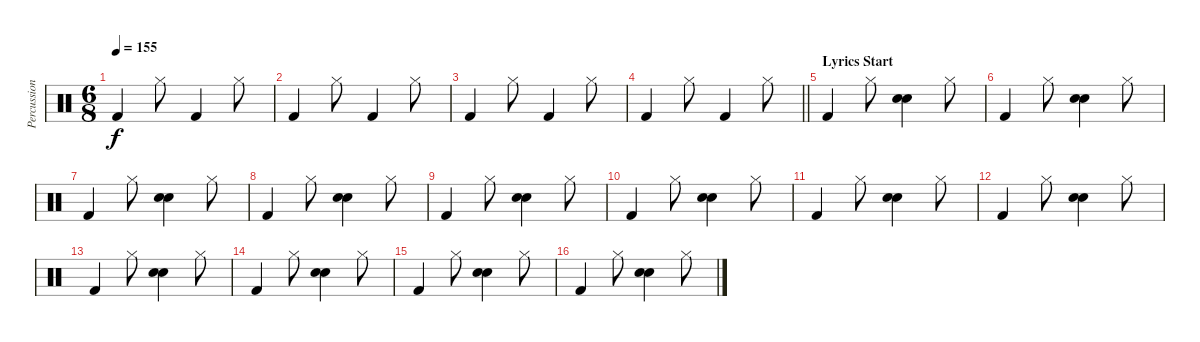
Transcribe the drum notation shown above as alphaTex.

\track ("Percussion" "Percussion") {instrument percussion}
\staff {score}
\articulation defaults
\ts (6 8)
\tempo 155
\clef neutral
\ks c "Kick (hit) 2".4{dy f} "Hi-Hat (closed)".8 "Kick (hit) 2".4 "Hi-Hat (closed)".8
|
"Kick (hit) 2".4 "Hi-Hat (closed)".8 "Kick (hit) 2".4 "Hi-Hat (closed)".8 |
"Kick (hit) 2".4 "Hi-Hat (closed)".8 "Kick (hit) 2".4 "Hi-Hat (closed)".8 |
\barLineRight lightlight "Kick (hit) 2".4 "Hi-Hat (closed)".8 "Kick (hit) 2".4 "Hi-Hat (closed)".8
|
\section ("" "Lyrics Start")
"Kick (hit) 2".4 "Hi-Hat (closed)".8 ("Hand Clap (hit)" "Electric Snare (hit)").4 "Hi-Hat (closed)".8 |
"Kick (hit) 2".4 "Hi-Hat (closed)".8 ("Hand Clap (hit)" "Electric Snare (hit)").4 "Hi-Hat (closed)".8 |
"Kick (hit) 2".4 "Hi-Hat (closed)".8 ("Hand Clap (hit)" "Electric Snare (hit)").4 "Hi-Hat (closed)".8 |
"Kick (hit) 2".4 "Hi-Hat (closed)".8 ("Hand Clap (hit)" "Electric Snare (hit)").4 "Hi-Hat (closed)".8 |
"Kick (hit) 2".4 "Hi-Hat (closed)".8 ("Hand Clap (hit)" "Electric Snare (hit)").4 "Hi-Hat (closed)".8 |
"Kick (hit) 2".4 "Hi-Hat (closed)".8 ("Hand Clap (hit)" "Electric Snare (hit)").4 "Hi-Hat (closed)".8 |
"Kick (hit) 2".4 "Hi-Hat (closed)".8 ("Hand Clap (hit)" "Electric Snare (hit)").4 "Hi-Hat (closed)".8 |
"Kick (hit) 2".4 "Hi-Hat (closed)".8 ("Hand Clap (hit)" "Electric Snare (hit)").4 "Hi-Hat (closed)".8 |
"Kick (hit) 2".4 "Hi-Hat (closed)".8 ("Hand Clap (hit)" "Electric Snare (hit)").4 "Hi-Hat (closed)".8 |
"Kick (hit) 2".4 "Hi-Hat (closed)".8 ("Hand Clap (hit)" "Electric Snare (hit)").4 "Hi-Hat (closed)".8 |
"Kick (hit) 2".4 "Hi-Hat (closed)".8 ("Hand Clap (hit)" "Electric Snare (hit)").4 "Hi-Hat (closed)".8 |
"Kick (hit) 2".4 "Hi-Hat (closed)".8 ("Hand Clap (hit)" "Electric Snare (hit)").4 "Hi-Hat (closed)".8
